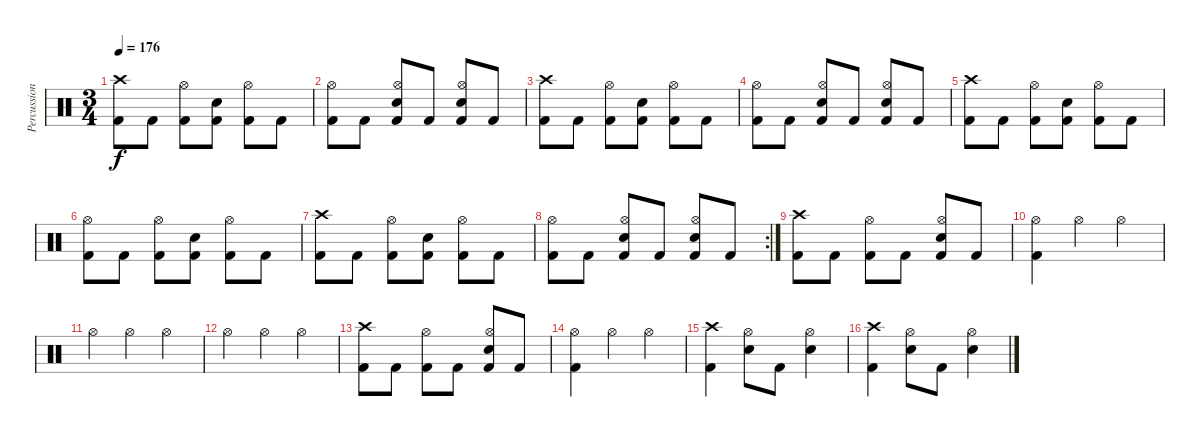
\track ("Percussion" "Percussion") {instrument percussion}
\staff {score}
\articulation defaults
\ts (3 4)
\tempo 176
\clef neutral
\ks c
("Crash high (hit)" "Kick (hit) 2").8{dy f} "Kick (hit) 2".8 ("Hi-Hat (open)" "Kick (hit) 2").8 ("Electric Snare (hit)" "Kick (hit) 2").8 ("Hi-Hat (open)" "Kick (hit) 2").8 "Kick (hit) 2".8 |
("Hi-Hat (open)" "Kick (hit) 2").8 "Kick (hit) 2".8 ("Hi-Hat (open)" "Electric Snare (hit)" "Kick (hit) 2").8 "Kick (hit) 2".8 ("Hi-Hat (open)" "Electric Snare (hit)" "Kick (hit) 2").8 "Kick (hit) 2".8 |
("Crash high (hit)" "Kick (hit) 2").8 "Kick (hit) 2".8 ("Hi-Hat (open)" "Kick (hit) 2").8 ("Electric Snare (hit)" "Kick (hit) 2").8 ("Hi-Hat (open)" "Kick (hit) 2").8 "Kick (hit) 2".8 |
("Hi-Hat (open)" "Kick (hit) 2").8 "Kick (hit) 2".8 ("Hi-Hat (open)" "Electric Snare (hit)" "Kick (hit) 2").8 "Kick (hit) 2".8 ("Hi-Hat (open)" "Electric Snare (hit)" "Kick (hit) 2").8 "Kick (hit) 2".8 |
("Crash high (hit)" "Kick (hit) 2").8 "Kick (hit) 2".8 ("Hi-Hat (open)" "Kick (hit) 2").8 ("Electric Snare (hit)" "Kick (hit) 2").8 ("Hi-Hat (open)" "Kick (hit) 2").8 "Kick (hit) 2".8 |
("Hi-Hat (open)" "Kick (hit) 2").8 "Kick (hit) 2".8 ("Hi-Hat (open)" "Kick (hit) 2").8 ("Electric Snare (hit)" "Kick (hit) 2").8 ("Hi-Hat (open)" "Kick (hit) 2").8 "Kick (hit) 2".8 |
("Crash high (hit)" "Kick (hit) 2").8 "Kick (hit) 2".8 ("Hi-Hat (open)" "Kick (hit) 2").8 ("Electric Snare (hit)" "Kick (hit) 2").8 ("Hi-Hat (open)" "Kick (hit) 2").8 "Kick (hit) 2".8 |
\rc 2
("Hi-Hat (open)" "Kick (hit) 2").8 "Kick (hit) 2".8 ("Hi-Hat (open)" "Electric Snare (hit)" "Kick (hit) 2").8 "Kick (hit) 2".8 ("Hi-Hat (open)" "Electric Snare (hit)" "Kick (hit) 2").8 "Kick (hit) 2".8 |
("Crash high (hit)" "Kick (hit) 2").8 "Kick (hit) 2".8 ("Hi-Hat (open)" "Kick (hit) 2").8 "Kick (hit) 2".8 ("Hi-Hat (open)" "Electric Snare (hit)" "Kick (hit) 2").8 "Kick (hit) 2".8 |
("Hi-Hat (open)" "Kick (hit) 2").4 "Hi-Hat (open)".4 "Hi-Hat (open)".4 |
"Hi-Hat (open)".4 "Hi-Hat (open)".4 "Hi-Hat (open)".4 |
"Hi-Hat (open)".4 "Hi-Hat (open)".4 "Hi-Hat (open)".4 |
("Crash high (hit)" "Kick (hit) 2").8 "Kick (hit) 2".8 ("Hi-Hat (open)" "Kick (hit) 2").8 "Kick (hit) 2".8 ("Hi-Hat (open)" "Electric Snare (hit)" "Kick (hit) 2").8 "Kick (hit) 2".8 |
("Hi-Hat (open)" "Kick (hit) 2").4 "Hi-Hat (open)".4 "Hi-Hat (open)".4 |
("Crash high (hit)" "Kick (hit) 2").4 ("Hi-Hat (open)" "Electric Snare (hit)").8 "Kick (hit) 2".8 ("Hi-Hat (open)" "Electric Snare (hit)").4 |
("Crash high (hit)" "Kick (hit) 2").4 ("Hi-Hat (open)" "Electric Snare (hit)").8 "Kick (hit) 2".8 ("Hi-Hat (open)" "Electric Snare (hit)").4
